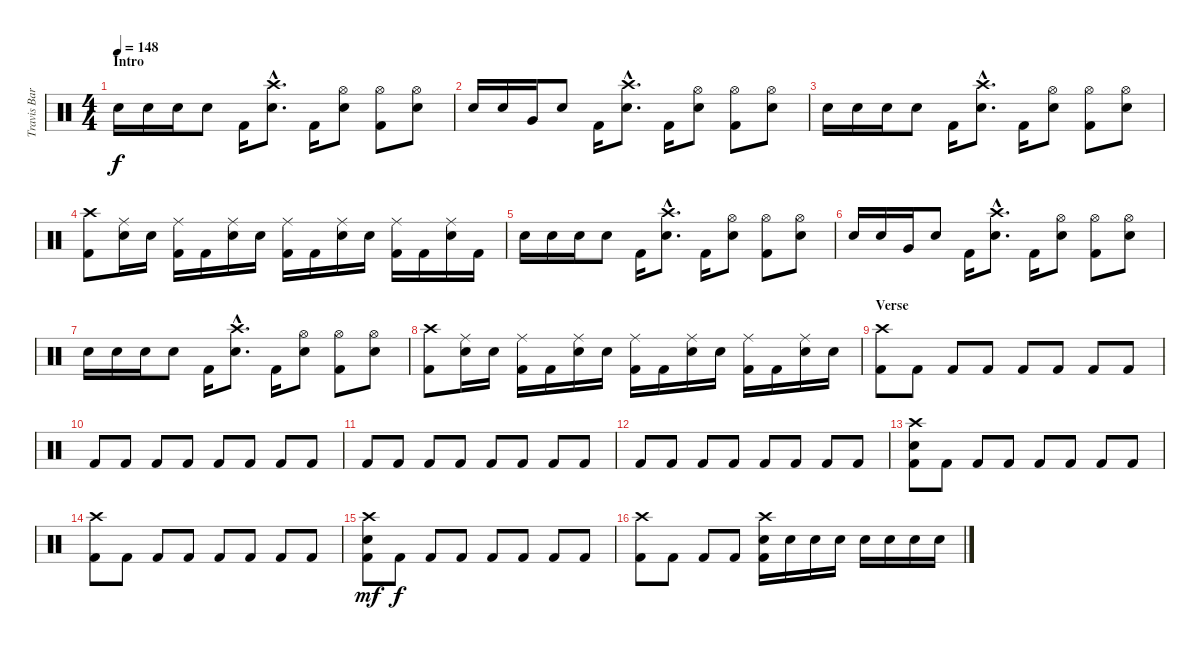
\track ("Travis Barker - Drums" "Travis Bar") {instrument percussion}
\staff {score}
\articulation defaults
\ts (4 4)
\section ("" "Intro")
\tempo 148
\clef neutral
\ks c "Electric Snare (hit)".16{dy f} "Electric Snare (hit)".16 "Electric Snare (hit)".16 "Electric Snare (hit)".8 "Kick (hit) 2".16
("Crash high (hit)"{hac} "Electric Snare (hit)"{hac}).8{d} "Kick (hit) 2".16 ("Hi-Hat (open)" "Electric Snare (hit)").8 ("Hi-Hat (open)" "Kick (hit) 2").8 ("Hi-Hat (open)" "Electric Snare (hit)").8 |
"Electric Snare (hit)".16 "Electric Snare (hit)".16 "Very Low Tom (hit)".16 "Electric Snare (hit)".8 "Kick (hit) 2".16 ("Crash high (hit)"{hac} "Electric Snare (hit)"{hac}).8{d} "Kick (hit) 2".16 ("Hi-Hat (open)" "Electric Snare (hit)").8 ("Hi-Hat (open)" "Kick (hit) 2").8 ("Hi-Hat (open)" "Electric Snare (hit)").8 |
"Electric Snare (hit)".16 "Electric Snare (hit)".16 "Electric Snare (hit)".16 "Electric Snare (hit)".8 "Kick (hit) 2".16 ("Crash high (hit)"{hac} "Electric Snare (hit)"{hac}).8{d} "Kick (hit) 2".16 ("Hi-Hat (open)" "Electric Snare (hit)").8 ("Hi-Hat (open)" "Kick (hit) 2").8 ("Hi-Hat (open)" "Electric Snare (hit)").8 |
("Crash high (hit)" "Kick (hit) 2").8 ("Ride (middle)" "Electric Snare (hit)").16 "Electric Snare (hit)".16 ("Ride (middle)" "Kick (hit) 2").16 "Kick (hit) 2".16 ("Ride (middle)" "Electric Snare (hit)").16 "Electric Snare (hit)".16 ("Ride (middle)" "Kick (hit) 2").16 "Kick (hit) 2".16 ("Ride (middle)" "Electric Snare (hit)").16 "Electric Snare (hit)".16 ("Ride (middle)" "Kick (hit) 2").16 "Kick (hit) 2".16 ("Ride (middle)" "Electric Snare (hit)").16 "Kick (hit) 2".16 |
"Electric Snare (hit)".16 "Electric Snare (hit)".16 "Electric Snare (hit)".16 "Electric Snare (hit)".8 "Kick (hit) 2".16 ("Crash high (hit)"{hac} "Electric Snare (hit)"{hac}).8{d} "Kick (hit) 2".16 ("Hi-Hat (open)" "Electric Snare (hit)").8 ("Hi-Hat (open)" "Kick (hit) 2").8 ("Hi-Hat (open)" "Electric Snare (hit)").8 |
"Electric Snare (hit)".16 "Electric Snare (hit)".16 "Very Low Tom (hit)".16 "Electric Snare (hit)".8 "Kick (hit) 2".16 ("Crash high (hit)"{hac} "Electric Snare (hit)"{hac}).8{d} "Kick (hit) 2".16 ("Hi-Hat (open)" "Electric Snare (hit)").8 ("Hi-Hat (open)" "Kick (hit) 2").8 ("Hi-Hat (open)" "Electric Snare (hit)").8 |
"Electric Snare (hit)".16 "Electric Snare (hit)".16 "Electric Snare (hit)".16 "Electric Snare (hit)".8 "Kick (hit) 2".16 ("Crash high (hit)"{hac} "Electric Snare (hit)"{hac}).8{d} "Kick (hit) 2".16 ("Hi-Hat (open)" "Electric Snare (hit)").8 ("Hi-Hat (open)" "Kick (hit) 2").8 ("Hi-Hat (open)" "Electric Snare (hit)").8 |
("Crash high (hit)" "Kick (hit) 2").8 ("Ride (middle)" "Electric Snare (hit)").16 "Electric Snare (hit)".16 ("Ride (middle)" "Kick (hit) 2").16 "Kick (hit) 2".16 ("Ride (middle)" "Electric Snare (hit)").16 "Electric Snare (hit)".16 ("Ride (middle)" "Kick (hit) 2").16 "Kick (hit) 2".16 ("Ride (middle)" "Electric Snare (hit)").16 "Electric Snare (hit)".16 ("Ride (middle)" "Kick (hit) 2").16 "Kick (hit) 2".16 ("Ride (middle)" "Electric Snare (hit)").16 "Electric Snare (hit)".16 |
\section ("" "Verse")
("Crash high (hit)" "Kick (hit) 2").8 "Kick (hit) 2".8 "Kick (hit) 2".8 "Kick (hit) 2".8 "Kick (hit) 2".8 "Kick (hit) 2".8 "Kick (hit) 2".8 "Kick (hit) 2".8 |
"Kick (hit) 2".8 "Kick (hit) 2".8 "Kick (hit) 2".8 "Kick (hit) 2".8 "Kick (hit) 2".8 "Kick (hit) 2".8 "Kick (hit) 2".8 "Kick (hit) 2".8 |
"Kick (hit) 2".8 "Kick (hit) 2".8 "Kick (hit) 2".8 "Kick (hit) 2".8 "Kick (hit) 2".8 "Kick (hit) 2".8 "Kick (hit) 2".8 "Kick (hit) 2".8 |
"Kick (hit) 2".8 "Kick (hit) 2".8 "Kick (hit) 2".8 "Kick (hit) 2".8 "Kick (hit) 2".8 "Kick (hit) 2".8 "Kick (hit) 2".8 "Kick (hit) 2".8 |
("Crash high (hit)" "Electric Snare (hit)" "Kick (hit) 2").8 "Kick (hit) 2".8 "Kick (hit) 2".8 "Kick (hit) 2".8 "Kick (hit) 2".8 "Kick (hit) 2".8 "Kick (hit) 2".8 "Kick (hit) 2".8 |
("Crash high (hit)" "Kick (hit) 2").8 "Kick (hit) 2".8 "Kick (hit) 2".8 "Kick (hit) 2".8 "Kick (hit) 2".8 "Kick (hit) 2".8 "Kick (hit) 2".8 "Kick (hit) 2".8 |
("Crash high (hit)" "Electric Snare (hit)" "Kick (hit) 2").8{dy mf} "Kick (hit) 2".8{dy f} "Kick (hit) 2".8 "Kick (hit) 2".8 "Kick (hit) 2".8 "Kick (hit) 2".8 "Kick (hit) 2".8 "Kick (hit) 2".8 |
("Crash high (hit)" "Kick (hit) 2").8 "Kick (hit) 2".8 "Kick (hit) 2".8 "Kick (hit) 2".8 ("Crash high (hit)" "Electric Snare (hit)" "Kick (hit) 2").16 "Electric Snare (hit)".16 "Electric Snare (hit)".16 "Electric Snare (hit)".16 "Electric Snare (hit)".16 "Electric Snare (hit)".16 "Electric Snare (hit)".16 "Electric Snare (hit)".16
